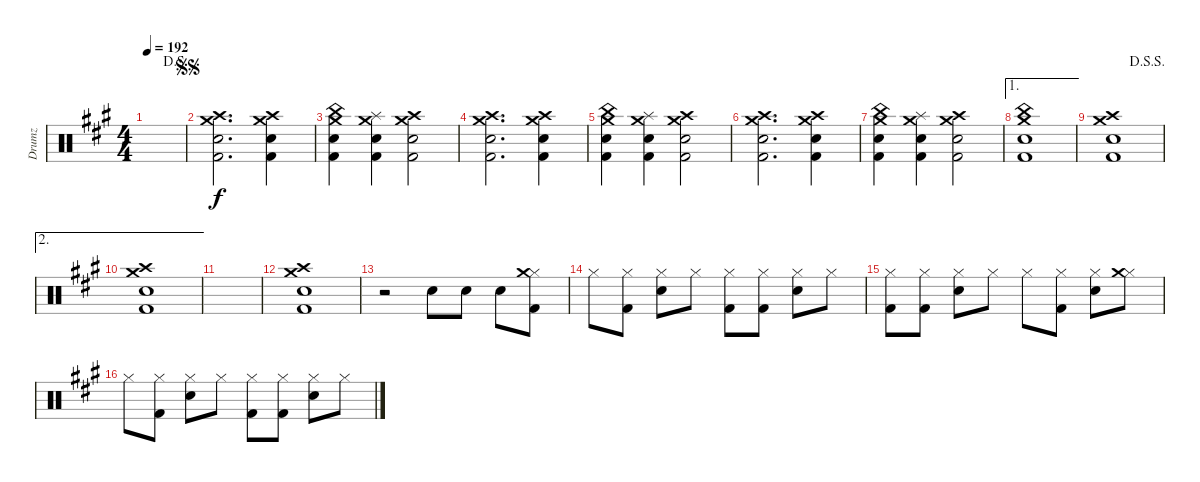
\track ("Drumz" "Drumz") {instrument percussion}
\staff {score}
\articulation defaults
\ts (4 4)
\jump dalsegno
\tempo 192
\clef neutral
\ks a
|
\jump segnosegno
("Kick (hit) 2" "Snare (hit) 2" "Crash high (hit)" "Crash medium (hit)").2{d} ("Kick (hit) 2" "Snare (hit) 2" "Crash high (hit)" "Crash medium (hit)").4 |
("Snare (hit) 2" "Kick (hit) 2" "China (hit)" "Crash medium (hit)").4 ("Snare (hit) 2" "Kick (hit) 2" "Splash (hit)" "Crash medium (hit)").4 ("Snare (hit) 2" "Kick (hit) 2" "Crash high (hit)" "Crash medium (hit)").2 |
("Kick (hit) 2" "Snare (hit) 2" "Crash high (hit)" "Crash medium (hit)").2{d} ("Kick (hit) 2" "Snare (hit) 2" "Crash high (hit)" "Crash medium (hit)").4 |
("Snare (hit) 2" "Kick (hit) 2" "China (hit)" "Crash medium (hit)").4 ("Snare (hit) 2" "Kick (hit) 2" "Splash (hit)" "Crash medium (hit)").4 ("Snare (hit) 2" "Kick (hit) 2" "Crash high (hit)" "Crash medium (hit)").2 |
("Kick (hit) 2" "Snare (hit) 2" "Crash high (hit)" "Crash medium (hit)").2{d} ("Kick (hit) 2" "Snare (hit) 2" "Crash high (hit)" "Crash medium (hit)").4 |
("Snare (hit) 2" "Kick (hit) 2" "China (hit)" "Crash medium (hit)").4 ("Snare (hit) 2" "Kick (hit) 2" "Splash (hit)" "Crash medium (hit)").4 ("Snare (hit) 2" "Kick (hit) 2" "Crash high (hit)" "Crash medium (hit)").2 |
\ae 1
("Snare (hit) 2" "Kick (hit) 2" "China (hit)" "Crash medium (hit)").1 |
\jump dalsegnosegno
("Snare (hit) 2" "Kick (hit) 2" "Crash high (hit)" "Crash medium (hit)").1 |
\ae 2
("Snare (hit) 2" "Kick (hit) 2" "Crash high (hit)" "Crash medium (hit)").1 |
|
("Snare (hit) 2" "Kick (hit) 2" "Crash high (hit)" "Crash medium (hit)").1 |
r.2 "Snare (hit) 2".8 "Snare (hit) 2".8 "Snare (hit) 2".8 ("Hi-Hat (closed)" "Kick (hit) 2" "Crash medium (hit)").8 |
"Hi-Hat (closed)".8 ("Hi-Hat (closed)" "Kick (hit) 2").8 ("Hi-Hat (closed)" "Snare (hit) 2").8 "Hi-Hat (closed)".8 ("Hi-Hat (closed)" "Kick (hit) 2").8 ("Hi-Hat (closed)" "Kick (hit) 2").8 ("Hi-Hat (closed)" "Snare (hit) 2").8 "Hi-Hat (closed)".8 |
("Hi-Hat (closed)" "Kick (hit) 2").8 ("Hi-Hat (closed)" "Kick (hit) 2").8 ("Hi-Hat (closed)" "Snare (hit) 2").8 "Hi-Hat (closed)".8 "Hi-Hat (closed)".8 ("Hi-Hat (closed)" "Kick (hit) 2").8 ("Hi-Hat (closed)" "Snare (hit) 2").8 ("Hi-Hat (closed)" "Crash medium (hit)").8 |
"Hi-Hat (closed)".8 ("Hi-Hat (closed)" "Kick (hit) 2").8 ("Hi-Hat (closed)" "Snare (hit) 2").8 "Hi-Hat (closed)".8 ("Hi-Hat (closed)" "Kick (hit) 2").8 ("Hi-Hat (closed)" "Kick (hit) 2").8 ("Hi-Hat (closed)" "Snare (hit) 2").8 "Hi-Hat (closed)".8
